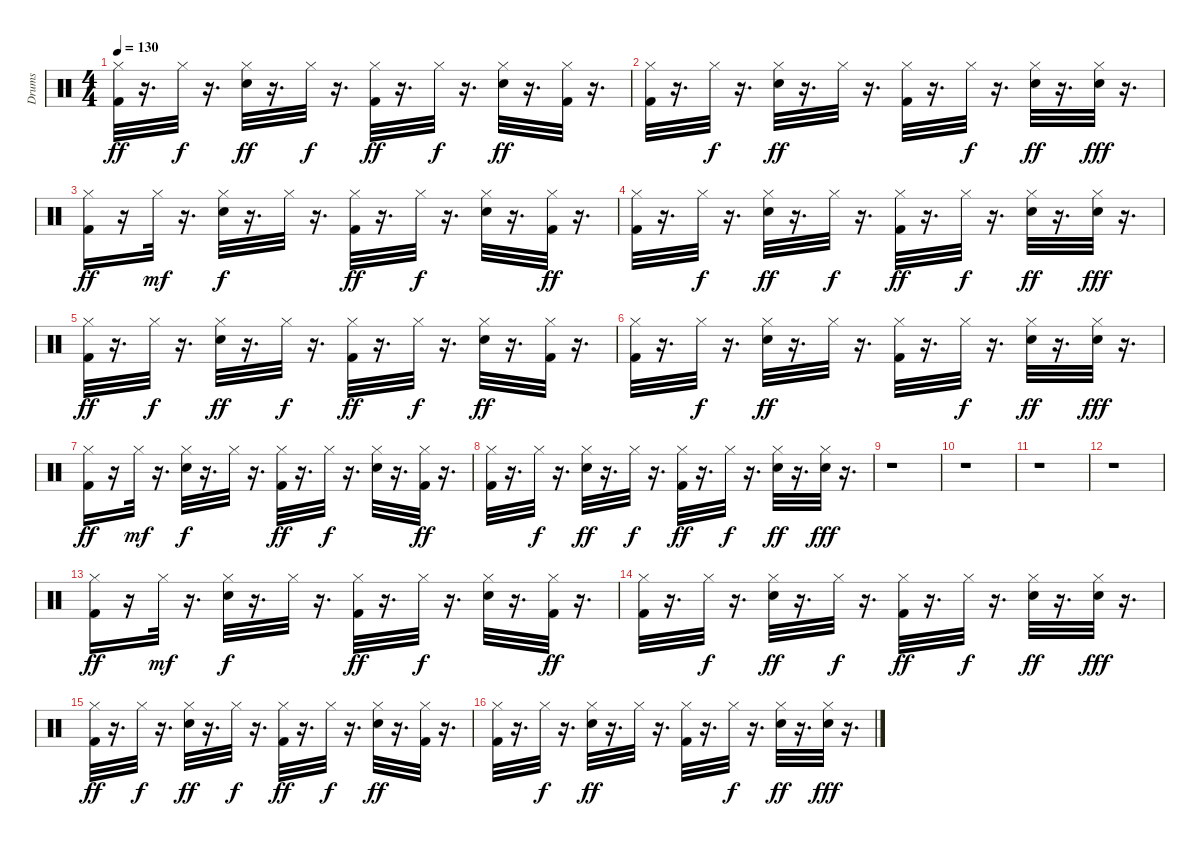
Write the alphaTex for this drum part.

\track ("Drums" "Drums") {instrument percussion}
\staff {score}
\articulation defaults
\ts (4 4)
\tempo 130
\clef neutral
\ks c
("Hi-Hat (closed)" "Kick (hit) 2").32{dy ff} r.16{d} "Hi-Hat (closed)".32{dy f} r.16{d} ("Snare (hit) 2" "Hi-Hat (closed)").32{dy ff} r.16{d} "Hi-Hat (closed)".32{dy f} r.16{d} ("Hi-Hat (closed)" "Kick (hit) 2").32{dy ff} r.16{d} "Hi-Hat (closed)".32{dy f} r.16{d} ("Hi-Hat (closed)" "Snare (hit) 2").32{dy ff} r.16{d} ("Kick (hit) 2" "Hi-Hat (closed)").32 r.16{d} |
("Kick (hit) 2" "Hi-Hat (closed)").32 r.16{d} "Hi-Hat (closed)".32{dy f} r.16{d} ("Snare (hit) 2" "Hi-Hat (closed)").32{dy ff} r.16{d} "Hi-Hat (closed)".32 r.16{d} ("Hi-Hat (closed)" "Kick (hit) 2").32 r.16{d} "Hi-Hat (closed)".32{dy f} r.16{d} ("Snare (hit) 2" "Hi-Hat (closed)").32{dy ff} r.16{d} ("Hi-Hat (closed)" "Hand Clap (hit)").32{dy fff} r.16{d} |
("Kick (hit) 2" "Hi-Hat (closed)").16{dy ff} r.16 "Hi-Hat (closed)".32{dy mf} r.16{d} ("Hi-Hat (closed)" "Snare (hit) 2").32{dy f} r.16{d} "Hi-Hat (closed)".32 r.16{d} ("Kick (hit) 2" "Hi-Hat (closed)").32{dy ff} r.16{d} "Hi-Hat (closed)".32{dy f} r.16{d} ("Hi-Hat (closed)" "Snare (hit) 2").32 r.16{d} ("Kick (hit) 2" "Hi-Hat (closed)").32{dy ff} r.16{d} |
("Hi-Hat (closed)" "Kick (hit) 2").32 r.16{d} "Hi-Hat (closed)".32{dy f} r.16{d} ("Hi-Hat (closed)" "Snare (hit) 2").32{dy ff} r.16{d} "Hi-Hat (closed)".32{dy f} r.16{d} ("Kick (hit) 2" "Hi-Hat (closed)").32{dy ff} r.16{d} "Hi-Hat (closed)".32{dy f} r.16{d} ("Hi-Hat (closed)" "Snare (hit) 2").32{dy ff} r.16{d} ("Hi-Hat (closed)" "Hand Clap (hit)").32{dy fff} r.16{d} |
("Hi-Hat (closed)" "Kick (hit) 2").32{dy ff} r.16{d} "Hi-Hat (closed)".32{dy f} r.16{d} ("Snare (hit) 2" "Hi-Hat (closed)").32{dy ff} r.16{d} "Hi-Hat (closed)".32{dy f} r.16{d} ("Kick (hit) 2" "Hi-Hat (closed)").32{dy ff} r.16{d} "Hi-Hat (closed)".32{dy f} r.16{d} ("Hi-Hat (closed)" "Snare (hit) 2").32{dy ff} r.16{d} ("Kick (hit) 2" "Hi-Hat (closed)").32 r.16{d} |
("Hi-Hat (closed)" "Kick (hit) 2").32 r.16{d} "Hi-Hat (closed)".32{dy f} r.16{d} ("Snare (hit) 2" "Hi-Hat (closed)").32{dy ff} r.16{d} "Hi-Hat (closed)".32 r.16{d} ("Hi-Hat (closed)" "Kick (hit) 2").32 r.16{d} "Hi-Hat (closed)".32{dy f} r.16{d} ("Hi-Hat (closed)" "Snare (hit) 2").32{dy ff} r.16{d} ("Hi-Hat (closed)" "Hand Clap (hit)").32{dy fff} r.16{d} |
("Kick (hit) 2" "Hi-Hat (closed)").16{dy ff} r.16 "Hi-Hat (closed)".32{dy mf} r.16{d} ("Snare (hit) 2" "Hi-Hat (closed)").32{dy f} r.16{d} "Hi-Hat (closed)".32 r.16{d} ("Kick (hit) 2" "Hi-Hat (closed)").32{dy ff} r.16{d} "Hi-Hat (closed)".32{dy f} r.16{d} ("Hi-Hat (closed)" "Snare (hit) 2").32 r.16{d} ("Kick (hit) 2" "Hi-Hat (closed)").32{dy ff} r.16{d} |
("Kick (hit) 2" "Hi-Hat (closed)").32 r.16{d} "Hi-Hat (closed)".32{dy f} r.16{d} ("Snare (hit) 2" "Hi-Hat (closed)").32{dy ff} r.16{d} "Hi-Hat (closed)".32{dy f} r.16{d} ("Hi-Hat (closed)" "Kick (hit) 2").32{dy ff} r.16{d} "Hi-Hat (closed)".32{dy f} r.16{d} ("Snare (hit) 2" "Hi-Hat (closed)").32{dy ff} r.16{d} ("Hi-Hat (closed)" "Hand Clap (hit)").32{dy fff} r.16{d} |
r.1 |
r.1 |
r.1 |
r.1 |
("Kick (hit) 2" "Hi-Hat (closed)").16{dy ff} r.16 "Hi-Hat (closed)".32{dy mf} r.16{d} ("Hi-Hat (closed)" "Snare (hit) 2").32{dy f} r.16{d} "Hi-Hat (closed)".32 r.16{d} ("Kick (hit) 2" "Hi-Hat (closed)").32{dy ff} r.16{d} "Hi-Hat (closed)".32{dy f} r.16{d} ("Hi-Hat (closed)" "Snare (hit) 2").32 r.16{d} ("Kick (hit) 2" "Hi-Hat (closed)").32{dy ff} r.16{d} |
("Hi-Hat (closed)" "Kick (hit) 2").32 r.16{d} "Hi-Hat (closed)".32{dy f} r.16{d} ("Hi-Hat (closed)" "Snare (hit) 2").32{dy ff} r.16{d} "Hi-Hat (closed)".32{dy f} r.16{d} ("Kick (hit) 2" "Hi-Hat (closed)").32{dy ff} r.16{d} "Hi-Hat (closed)".32{dy f} r.16{d} ("Hi-Hat (closed)" "Snare (hit) 2").32{dy ff} r.16{d} ("Hi-Hat (closed)" "Hand Clap (hit)").32{dy fff} r.16{d} |
("Hi-Hat (closed)" "Kick (hit) 2").32{dy ff} r.16{d} "Hi-Hat (closed)".32{dy f} r.16{d} ("Hi-Hat (closed)" "Snare (hit) 2").32{dy ff} r.16{d} "Hi-Hat (closed)".32{dy f} r.16{d} ("Kick (hit) 2" "Hi-Hat (closed)").32{dy ff} r.16{d} "Hi-Hat (closed)".32{dy f} r.16{d} ("Hi-Hat (closed)" "Snare (hit) 2").32{dy ff} r.16{d} ("Kick (hit) 2" "Hi-Hat (closed)").32 r.16{d} |
("Kick (hit) 2" "Hi-Hat (closed)").32 r.16{d} "Hi-Hat (closed)".32{dy f} r.16{d} ("Hi-Hat (closed)" "Snare (hit) 2").32{dy ff} r.16{d} "Hi-Hat (closed)".32 r.16{d} ("Kick (hit) 2" "Hi-Hat (closed)").32 r.16{d} "Hi-Hat (closed)".32{dy f} r.16{d} ("Hi-Hat (closed)" "Snare (hit) 2").32{dy ff} r.16{d} ("Hi-Hat (closed)" "Hand Clap (hit)").32{dy fff} r.16{d}
